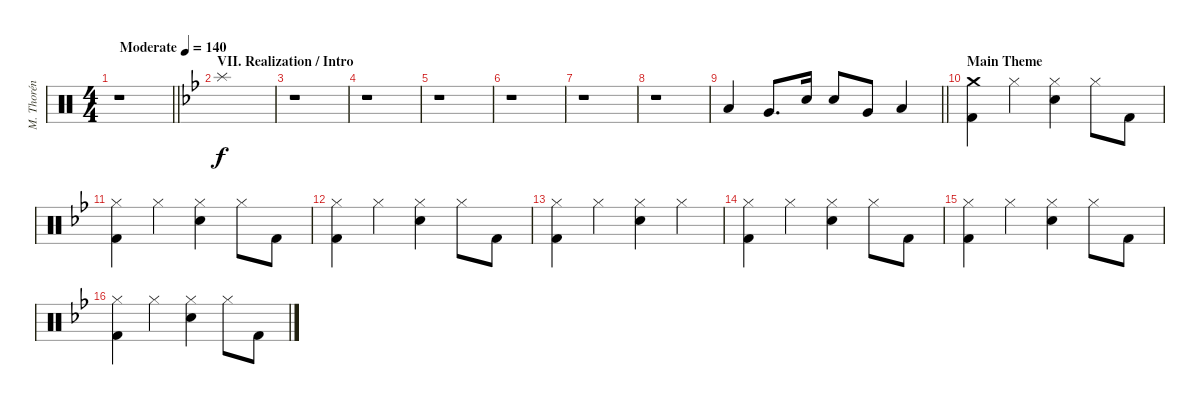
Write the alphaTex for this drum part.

\track ("M. Thorén (Drums)" "M. Thorén ") {instrument percussion}
\staff {score}
\articulation defaults
\ts (4 4)
\tempo (140 "Moderate")
\clef neutral
\barLineRight lightlight
\ks c
r.1{dy f} |
\section ("" "VII. Realization / Intro")
\ks gminor "Splash (hit)".1
|
r.1 |
r.1 |
r.1 |
r.1 |
r.1 |
r.1 |
\barLineRight lightlight "Low Tom (hit)".4 "Very Low Tom (hit)".8{d} "Electric Snare (hit)".16 "Electric Snare (hit)".8 "Very Low Tom (hit)".8 "Low Floor Tom (hit)".4
|
\section ("" "Main Theme")
("Crash medium (hit)" "Kick (hit) 2").4 "Hi-Hat (closed)".4 ("Hi-Hat (closed)" "Electric Snare (hit)").4 "Hi-Hat (closed)".8 "Kick (hit) 2".8 |
("Hi-Hat (closed)" "Kick (hit) 2").4 "Hi-Hat (closed)".4 ("Hi-Hat (closed)" "Electric Snare (hit)").4 "Hi-Hat (closed)".8 "Kick (hit) 2".8 |
("Hi-Hat (closed)" "Kick (hit) 2").4 "Hi-Hat (closed)".4 ("Hi-Hat (closed)" "Electric Snare (hit)").4 "Hi-Hat (closed)".8 "Kick (hit) 2".8 |
("Hi-Hat (closed)" "Kick (hit) 2").4 "Hi-Hat (closed)".4 ("Hi-Hat (closed)" "Electric Snare (hit)").4 "Hi-Hat (closed)".4 |
("Hi-Hat (closed)" "Kick (hit) 2").4 "Hi-Hat (closed)".4 ("Hi-Hat (closed)" "Electric Snare (hit)").4 "Hi-Hat (closed)".8 "Kick (hit) 2".8 |
("Hi-Hat (closed)" "Kick (hit) 2").4 "Hi-Hat (closed)".4 ("Hi-Hat (closed)" "Electric Snare (hit)").4 "Hi-Hat (closed)".8 "Kick (hit) 2".8 |
("Hi-Hat (closed)" "Kick (hit) 2").4 "Hi-Hat (closed)".4 ("Hi-Hat (closed)" "Electric Snare (hit)").4 "Hi-Hat (closed)".8 "Kick (hit) 2".8
